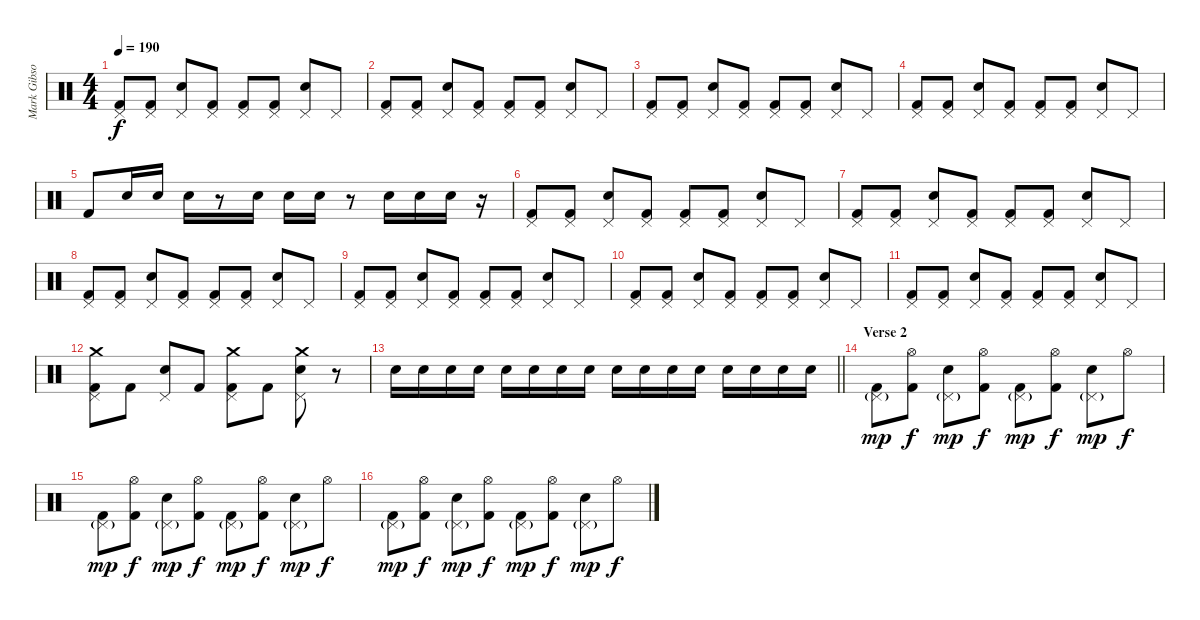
\track ("Mark Gibson" "Mark Gibso") {instrument percussion}
\staff {score}
\articulation defaults
\ts (4 4)
\tempo 190
\clef neutral
\ks c
("Pedal Hi-Hat (hit)" "Kick (hit) 2").8{dy f} ("Pedal Hi-Hat (hit)" "Kick (hit) 2").8 ("Pedal Hi-Hat (hit)" "Electric Snare (hit)").8 ("Pedal Hi-Hat (hit)" "Kick (hit) 2").8 ("Pedal Hi-Hat (hit)" "Kick (hit) 2").8 ("Pedal Hi-Hat (hit)" "Kick (hit) 2").8 ("Pedal Hi-Hat (hit)" "Electric Snare (hit)").8 "Pedal Hi-Hat (hit)".8 |
("Pedal Hi-Hat (hit)" "Kick (hit) 2").8 ("Pedal Hi-Hat (hit)" "Kick (hit) 2").8 ("Pedal Hi-Hat (hit)" "Electric Snare (hit)").8 ("Pedal Hi-Hat (hit)" "Kick (hit) 2").8 ("Pedal Hi-Hat (hit)" "Kick (hit) 2").8 ("Pedal Hi-Hat (hit)" "Kick (hit) 2").8 ("Pedal Hi-Hat (hit)" "Electric Snare (hit)").8 "Pedal Hi-Hat (hit)".8 |
("Pedal Hi-Hat (hit)" "Kick (hit) 2").8 ("Pedal Hi-Hat (hit)" "Kick (hit) 2").8 ("Pedal Hi-Hat (hit)" "Electric Snare (hit)").8 ("Pedal Hi-Hat (hit)" "Kick (hit) 2").8 ("Pedal Hi-Hat (hit)" "Kick (hit) 2").8 ("Pedal Hi-Hat (hit)" "Kick (hit) 2").8 ("Pedal Hi-Hat (hit)" "Electric Snare (hit)").8 "Pedal Hi-Hat (hit)".8 |
("Pedal Hi-Hat (hit)" "Kick (hit) 2").8 ("Pedal Hi-Hat (hit)" "Kick (hit) 2").8 ("Pedal Hi-Hat (hit)" "Electric Snare (hit)").8 ("Pedal Hi-Hat (hit)" "Kick (hit) 2").8 ("Pedal Hi-Hat (hit)" "Kick (hit) 2").8 ("Pedal Hi-Hat (hit)" "Kick (hit) 2").8 ("Pedal Hi-Hat (hit)" "Electric Snare (hit)").8 "Pedal Hi-Hat (hit)".8 |
"Kick (hit) 2".8 "Electric Snare (hit)".16 "Electric Snare (hit)".16 "Electric Snare (hit)".16 r.8 "Electric Snare (hit)".16 "Electric Snare (hit)".16 "Electric Snare (hit)".16 r.8 "Electric Snare (hit)".16 "Electric Snare (hit)".16 "Electric Snare (hit)".16 r.16 |
("Pedal Hi-Hat (hit)" "Kick (hit) 2").8 ("Pedal Hi-Hat (hit)" "Kick (hit) 2").8 ("Pedal Hi-Hat (hit)" "Electric Snare (hit)").8 ("Pedal Hi-Hat (hit)" "Kick (hit) 2").8 ("Pedal Hi-Hat (hit)" "Kick (hit) 2").8 ("Pedal Hi-Hat (hit)" "Kick (hit) 2").8 ("Pedal Hi-Hat (hit)" "Electric Snare (hit)").8 "Pedal Hi-Hat (hit)".8 |
("Pedal Hi-Hat (hit)" "Kick (hit) 2").8 ("Pedal Hi-Hat (hit)" "Kick (hit) 2").8 ("Pedal Hi-Hat (hit)" "Electric Snare (hit)").8 ("Pedal Hi-Hat (hit)" "Kick (hit) 2").8 ("Pedal Hi-Hat (hit)" "Kick (hit) 2").8 ("Pedal Hi-Hat (hit)" "Kick (hit) 2").8 ("Pedal Hi-Hat (hit)" "Electric Snare (hit)").8 "Pedal Hi-Hat (hit)".8 |
("Pedal Hi-Hat (hit)" "Kick (hit) 2").8 ("Pedal Hi-Hat (hit)" "Kick (hit) 2").8 ("Pedal Hi-Hat (hit)" "Electric Snare (hit)").8 ("Pedal Hi-Hat (hit)" "Kick (hit) 2").8 ("Pedal Hi-Hat (hit)" "Kick (hit) 2").8 ("Pedal Hi-Hat (hit)" "Kick (hit) 2").8 ("Pedal Hi-Hat (hit)" "Electric Snare (hit)").8 "Pedal Hi-Hat (hit)".8 |
("Pedal Hi-Hat (hit)" "Kick (hit) 2").8 ("Pedal Hi-Hat (hit)" "Kick (hit) 2").8 ("Pedal Hi-Hat (hit)" "Electric Snare (hit)").8 ("Pedal Hi-Hat (hit)" "Kick (hit) 2").8 ("Pedal Hi-Hat (hit)" "Kick (hit) 2").8 ("Pedal Hi-Hat (hit)" "Kick (hit) 2").8 ("Pedal Hi-Hat (hit)" "Electric Snare (hit)").8 "Pedal Hi-Hat (hit)".8 |
("Pedal Hi-Hat (hit)" "Kick (hit) 2").8 ("Pedal Hi-Hat (hit)" "Kick (hit) 2").8 ("Pedal Hi-Hat (hit)" "Electric Snare (hit)").8 ("Pedal Hi-Hat (hit)" "Kick (hit) 2").8 ("Pedal Hi-Hat (hit)" "Kick (hit) 2").8 ("Pedal Hi-Hat (hit)" "Kick (hit) 2").8 ("Pedal Hi-Hat (hit)" "Electric Snare (hit)").8 "Pedal Hi-Hat (hit)".8 |
("Pedal Hi-Hat (hit)" "Kick (hit) 2").8 ("Pedal Hi-Hat (hit)" "Kick (hit) 2").8 ("Pedal Hi-Hat (hit)" "Electric Snare (hit)").8 ("Pedal Hi-Hat (hit)" "Kick (hit) 2").8 ("Pedal Hi-Hat (hit)" "Kick (hit) 2").8 ("Pedal Hi-Hat (hit)" "Kick (hit) 2").8 ("Pedal Hi-Hat (hit)" "Electric Snare (hit)").8 "Pedal Hi-Hat (hit)".8 |
("Crash medium (hit)" "Pedal Hi-Hat (hit)" "Kick (hit) 2").8 "Kick (hit) 2".8 ("Pedal Hi-Hat (hit)" "Electric Snare (hit)").8 "Kick (hit) 2".8 ("Crash medium (hit)" "Pedal Hi-Hat (hit)" "Kick (hit) 2").8 "Kick (hit) 2".8 ("Crash medium (hit)" "Pedal Hi-Hat (hit)" "Electric Snare (hit)").8 r.8 |
\barLineRight lightlight "Electric Snare (hit)".16 "Electric Snare (hit)".16 "Electric Snare (hit)".16 "Electric Snare (hit)".16 "Electric Snare (hit)".16 "Electric Snare (hit)".16 "Electric Snare (hit)".16 "Electric Snare (hit)".16 "Electric Snare (hit)".16 "Electric Snare (hit)".16 "Electric Snare (hit)".16 "Electric Snare (hit)".16 "Electric Snare (hit)".16 "Electric Snare (hit)".16 "Electric Snare (hit)".16 "Electric Snare (hit)".16
|
\section ("" "Verse 2")
("Pedal Hi-Hat (hit)"{g} "Kick (hit) 2").8{dy mp} ("Hi-Hat (open)" "Kick (hit) 2").8{dy f} ("Pedal Hi-Hat (hit)"{g} "Electric Snare (hit)").8{dy mp} ("Hi-Hat (open)" "Kick (hit) 2").8{dy f} ("Pedal Hi-Hat (hit)"{g} "Kick (hit) 2").8{dy mp} ("Hi-Hat (open)" "Kick (hit) 2").8{dy f} ("Pedal Hi-Hat (hit)"{g} "Electric Snare (hit)").8{dy mp} "Hi-Hat (open)".8{dy f} |
("Pedal Hi-Hat (hit)"{g} "Kick (hit) 2").8{dy mp} ("Hi-Hat (open)" "Kick (hit) 2").8{dy f} ("Pedal Hi-Hat (hit)"{g} "Electric Snare (hit)").8{dy mp} ("Hi-Hat (open)" "Kick (hit) 2").8{dy f} ("Pedal Hi-Hat (hit)"{g} "Kick (hit) 2").8{dy mp} ("Hi-Hat (open)" "Kick (hit) 2").8{dy f} ("Pedal Hi-Hat (hit)"{g} "Electric Snare (hit)").8{dy mp} "Hi-Hat (open)".8{dy f} |
("Pedal Hi-Hat (hit)"{g} "Kick (hit) 2").8{dy mp} ("Hi-Hat (open)" "Kick (hit) 2").8{dy f} ("Pedal Hi-Hat (hit)"{g} "Electric Snare (hit)").8{dy mp} ("Hi-Hat (open)" "Kick (hit) 2").8{dy f} ("Pedal Hi-Hat (hit)"{g} "Kick (hit) 2").8{dy mp} ("Hi-Hat (open)" "Kick (hit) 2").8{dy f} ("Pedal Hi-Hat (hit)"{g} "Electric Snare (hit)").8{dy mp} "Hi-Hat (open)".8{dy f}
